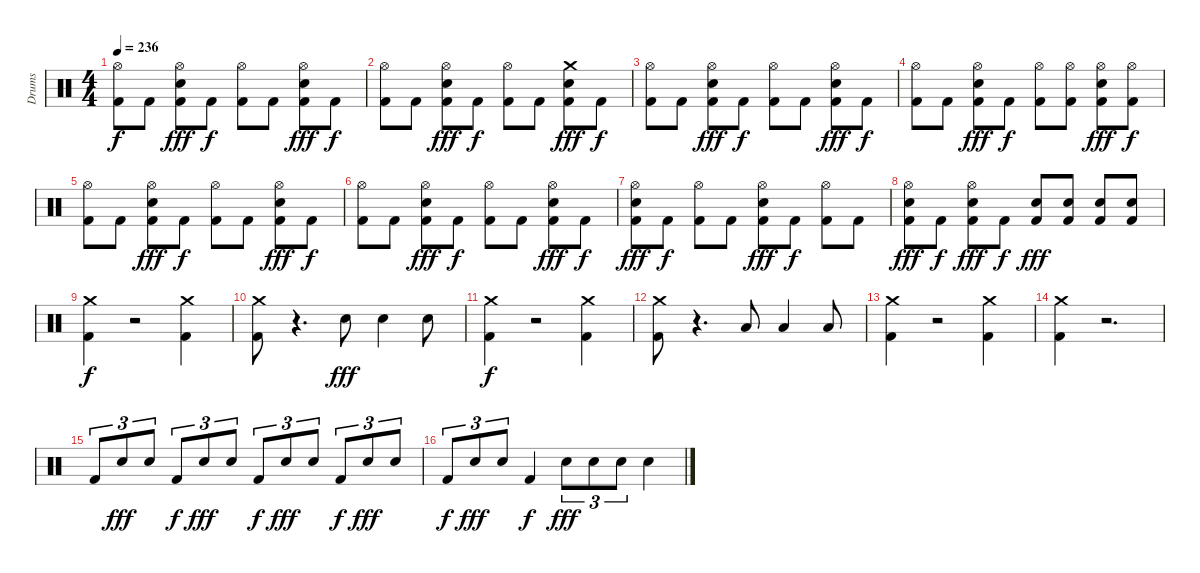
\track ("Drums" "Drums") {instrument percussion}
\staff {score}
\articulation defaults
\ts (4 4)
\tempo 236
\clef neutral
\ks c
("Hi-Hat (open)" "Kick (hit) 2").8{dy f} "Kick (hit) 2".8 ("Hi-Hat (open)" "Kick (hit) 2" "Electric Snare (hit)").8{dy fff} "Kick (hit) 2".8{dy f} ("Hi-Hat (open)" "Kick (hit) 2").8 "Kick (hit) 2".8 ("Hi-Hat (open)" "Kick (hit) 2" "Electric Snare (hit)").8{dy fff} "Kick (hit) 2".8{dy f} |
("Hi-Hat (open)" "Kick (hit) 2").8 "Kick (hit) 2".8 ("Hi-Hat (open)" "Kick (hit) 2" "Electric Snare (hit)").8{dy fff} "Kick (hit) 2".8{dy f} ("Hi-Hat (open)" "Kick (hit) 2").8 "Kick (hit) 2".8 ("Crash medium (hit)" "Kick (hit) 2" "Electric Snare (hit)").8{dy fff} "Kick (hit) 2".8{dy f} |
("Hi-Hat (open)" "Kick (hit) 2").8 "Kick (hit) 2".8 ("Hi-Hat (open)" "Kick (hit) 2" "Electric Snare (hit)").8{dy fff} "Kick (hit) 2".8{dy f} ("Hi-Hat (open)" "Kick (hit) 2").8 "Kick (hit) 2".8 ("Hi-Hat (open)" "Kick (hit) 2" "Electric Snare (hit)").8{dy fff} "Kick (hit) 2".8{dy f} |
("Hi-Hat (open)" "Kick (hit) 2").8 "Kick (hit) 2".8 ("Hi-Hat (open)" "Kick (hit) 2" "Electric Snare (hit)").8{dy fff} "Kick (hit) 2".8{dy f} ("Hi-Hat (open)" "Kick (hit) 2").8 ("Hi-Hat (open)" "Kick (hit) 2").8 ("Hi-Hat (open)" "Kick (hit) 2" "Electric Snare (hit)").8{dy fff} ("Hi-Hat (open)" "Kick (hit) 2").8{dy f} |
("Hi-Hat (open)" "Kick (hit) 2").8 "Kick (hit) 2".8 ("Hi-Hat (open)" "Kick (hit) 2" "Electric Snare (hit)").8{dy fff} "Kick (hit) 2".8{dy f} ("Hi-Hat (open)" "Kick (hit) 2").8 "Kick (hit) 2".8 ("Hi-Hat (open)" "Kick (hit) 2" "Electric Snare (hit)").8{dy fff} "Kick (hit) 2".8{dy f} |
("Hi-Hat (open)" "Kick (hit) 2").8 "Kick (hit) 2".8 ("Hi-Hat (open)" "Kick (hit) 2" "Electric Snare (hit)").8{dy fff} "Kick (hit) 2".8{dy f} ("Hi-Hat (open)" "Kick (hit) 2").8 "Kick (hit) 2".8 ("Hi-Hat (open)" "Kick (hit) 2" "Electric Snare (hit)").8{dy fff} "Kick (hit) 2".8{dy f} |
("Hi-Hat (open)" "Kick (hit) 2" "Electric Snare (hit)").8{dy fff} "Kick (hit) 2".8{dy f} ("Hi-Hat (open)" "Kick (hit) 2").8 "Kick (hit) 2".8 ("Hi-Hat (open)" "Kick (hit) 2" "Electric Snare (hit)").8{dy fff} "Kick (hit) 2".8{dy f} ("Hi-Hat (open)" "Kick (hit) 2").8 "Kick (hit) 2".8 |
("Hi-Hat (open)" "Kick (hit) 2" "Electric Snare (hit)").8{dy fff} "Kick (hit) 2".8{dy f} ("Hi-Hat (open)" "Kick (hit) 2" "Electric Snare (hit)").8{dy fff} "Kick (hit) 2".8{dy f} ("Kick (hit) 2" "Electric Snare (hit)").8{dy fff} ("Kick (hit) 2" "Electric Snare (hit)").8 ("Kick (hit) 2" "Electric Snare (hit)").8 ("Kick (hit) 2" "Electric Snare (hit)").8 |
("Crash medium (hit)" "Kick (hit) 2").4{dy f} r.2 ("Crash medium (hit)" "Kick (hit) 2").4 |
("Crash medium (hit)" "Kick (hit) 2").8 r.4{d} "Electric Snare (hit)".8{dy fff} "Electric Snare (hit)".4 "Electric Snare (hit)".8 |
("Crash medium (hit)" "Kick (hit) 2").4{dy f} r.2 ("Crash medium (hit)" "Kick (hit) 2").4 |
("Crash medium (hit)" "Kick (hit) 2").8 r.4{d} "Low Tom (hit)".8 "Low Tom (hit)".4 "Low Tom (hit)".8 |
("Crash medium (hit)" "Kick (hit) 2").4 r.2 ("Crash medium (hit)" "Kick (hit) 2").4 |
("Crash medium (hit)" "Kick (hit) 2").4 r.2{d} |
"Kick (hit) 2".8{tu (3 2)} "Electric Snare (hit)".8{tu (3 2) dy fff} "Electric Snare (hit)".8{tu (3 2)} "Kick (hit) 2".8{tu (3 2) dy f} "Electric Snare (hit)".8{tu (3 2) dy fff} "Electric Snare (hit)".8{tu (3 2)} "Kick (hit) 2".8{tu (3 2) dy f} "Electric Snare (hit)".8{tu (3 2) dy fff} "Electric Snare (hit)".8{tu (3 2)} "Kick (hit) 2".8{tu (3 2) dy f} "Electric Snare (hit)".8{tu (3 2) dy fff} "Electric Snare (hit)".8{tu (3 2)} |
"Kick (hit) 2".8{tu (3 2) dy f} "Electric Snare (hit)".8{tu (3 2) dy fff} "Electric Snare (hit)".8{tu (3 2)} "Kick (hit) 2".4{dy f} "Electric Snare (hit)".8{tu (3 2) dy fff} "Electric Snare (hit)".8{tu (3 2)} "Electric Snare (hit)".8{tu (3 2)} "Electric Snare (hit)".4
